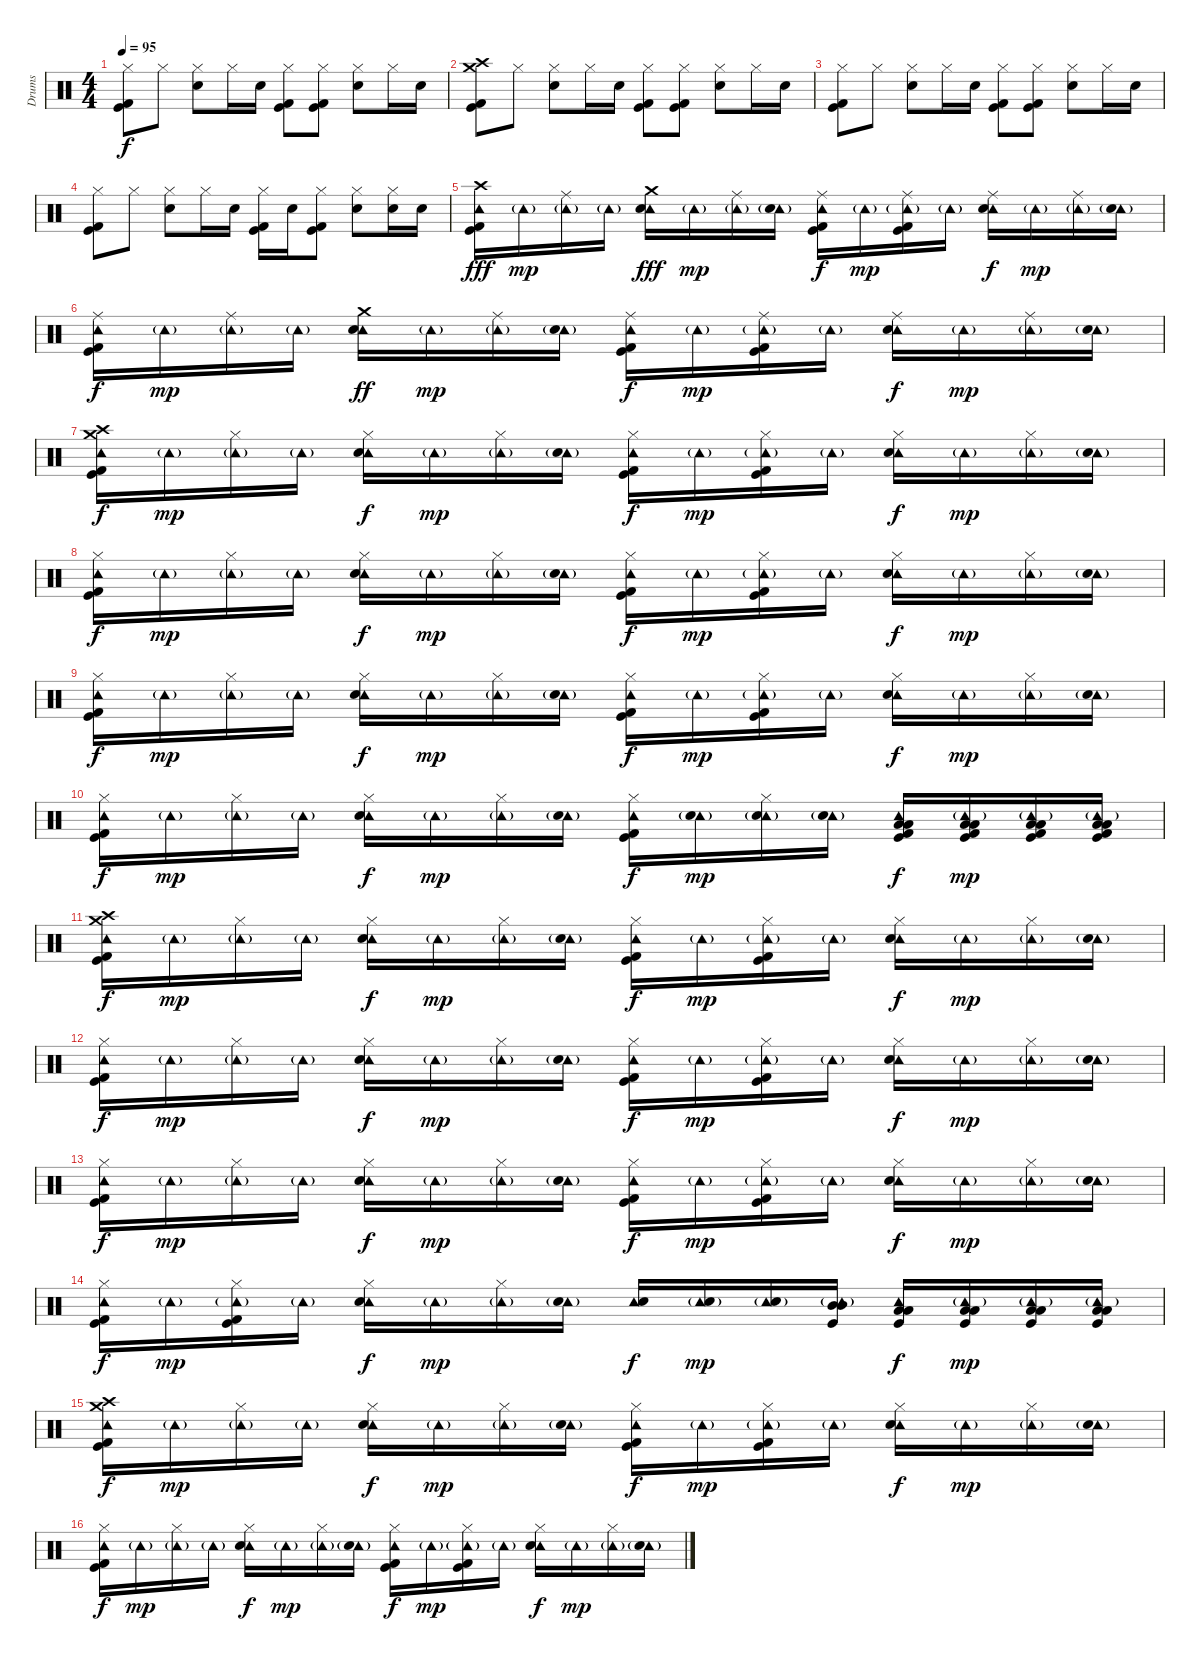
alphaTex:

\track ("Drums" "Drums") {instrument percussion}
\staff {score}
\articulation defaults
\ts (4 4)
\tempo 95
\clef neutral
\ks c
("Hi-Hat (closed)" "Kick (hit) 2" "Kick (hit)").8{dy f} "Hi-Hat (closed)".8 ("Hi-Hat (closed)" "Snare (hit) 2").8 "Hi-Hat (closed)".16 "Snare (hit) 2".16 ("Hi-Hat (closed)" "Kick (hit) 2" "Kick (hit)").8 ("Hi-Hat (closed)" "Kick (hit) 2" "Kick (hit)").8 ("Hi-Hat (closed)" "Snare (hit) 2").8 "Hi-Hat (closed)".16 "Snare (hit) 2".16 |
("Crash high (hit)" "Crash medium (hit)" "Kick (hit) 2" "Kick (hit)").8 "Hi-Hat (closed)".8 ("Hi-Hat (closed)" "Snare (hit) 2").8 "Hi-Hat (closed)".16 "Snare (hit) 2".16 ("Hi-Hat (closed)" "Kick (hit) 2" "Kick (hit)").8 ("Hi-Hat (closed)" "Kick (hit) 2" "Kick (hit)").8 ("Hi-Hat (closed)" "Snare (hit) 2").8 "Hi-Hat (closed)".16 "Snare (hit) 2".16 |
("Hi-Hat (closed)" "Kick (hit) 2" "Kick (hit)").8 "Hi-Hat (closed)".8 ("Hi-Hat (closed)" "Snare (hit) 2").8 "Hi-Hat (closed)".16 "Snare (hit) 2".16 ("Hi-Hat (closed)" "Kick (hit) 2" "Kick (hit)").8 ("Hi-Hat (closed)" "Kick (hit) 2" "Kick (hit)").8 ("Hi-Hat (closed)" "Snare (hit) 2").8 "Hi-Hat (closed)".16 "Snare (hit) 2".16 |
("Hi-Hat (closed)" "Kick (hit) 2" "Kick (hit)").8 "Hi-Hat (closed)".8 ("Hi-Hat (closed)" "Snare (hit) 2").8 "Hi-Hat (closed)".16 "Snare (hit) 2".16 ("Hi-Hat (closed)" "Kick (hit) 2" "Kick (hit)").16 "Snare (hit) 2".16 ("Hi-Hat (closed)" "Kick (hit) 2" "Kick (hit)").8 ("Hi-Hat (closed)" "Snare (hit) 2").8 ("Hi-Hat (closed)" "Snare (hit) 2").16 "Snare (hit) 2".16 |
("Crash high (hit)" "Tambourine (hit)" "Kick (hit) 2" "Kick (hit)").16{dy fff} "Tambourine (hit)"{g}.16{dy mp} ("Ride (middle)" "Tambourine (hit)"{g}).16 "Tambourine (hit)"{g}.16 ("Crash medium (hit)" "Tambourine (hit)" "Snare (hit) 2").16{dy fff} "Tambourine (hit)"{g}.16{dy mp} ("Ride (middle)" "Tambourine (hit)"{g}).16 ("Tambourine (hit)"{g} "Snare (hit) 2").16 ("Ride (middle)" "Tambourine (hit)" "Kick (hit) 2" "Kick (hit)").16{dy f} "Tambourine (hit)"{g}.16{dy mp} ("Ride (middle)" "Tambourine (hit)"{g} "Kick (hit) 2" "Kick (hit)").16 "Tambourine (hit)"{g}.16 ("Ride (middle)" "Tambourine (hit)" "Snare (hit) 2").16{dy f} "Tambourine (hit)"{g}.16{dy mp} ("Ride (middle)" "Tambourine (hit)"{g}).16 ("Tambourine (hit)"{g} "Snare (hit) 2").16 |
("Ride (middle)" "Tambourine (hit)" "Kick (hit) 2" "Kick (hit)").16{dy f} "Tambourine (hit)"{g}.16{dy mp} ("Ride (middle)" "Tambourine (hit)"{g}).16 "Tambourine (hit)"{g}.16 ("Crash medium (hit)" "Tambourine (hit)" "Snare (hit) 2").16{dy ff} "Tambourine (hit)"{g}.16{dy mp} ("Ride (middle)" "Tambourine (hit)"{g}).16 ("Tambourine (hit)"{g} "Snare (hit) 2").16 ("Ride (middle)" "Tambourine (hit)" "Kick (hit) 2" "Kick (hit)").16{dy f} "Tambourine (hit)"{g}.16{dy mp} ("Ride (middle)" "Tambourine (hit)"{g} "Kick (hit) 2" "Kick (hit)").16 "Tambourine (hit)"{g}.16 ("Ride (middle)" "Tambourine (hit)" "Snare (hit) 2").16{dy f} "Tambourine (hit)"{g}.16{dy mp} ("Ride (middle)" "Tambourine (hit)"{g}).16 ("Tambourine (hit)"{g} "Snare (hit) 2").16 |
("Crash high (hit)" "Tambourine (hit)" "Crash medium (hit)" "Kick (hit) 2" "Kick (hit)").16{dy f} "Tambourine (hit)"{g}.16{dy mp} ("Hi-Hat (closed)" "Tambourine (hit)"{g}).16 "Tambourine (hit)"{g}.16 ("Hi-Hat (closed)" "Tambourine (hit)" "Snare (hit) 2").16{dy f} "Tambourine (hit)"{g}.16{dy mp} ("Hi-Hat (closed)" "Tambourine (hit)"{g}).16 ("Tambourine (hit)"{g} "Snare (hit) 2").16 ("Hi-Hat (closed)" "Tambourine (hit)" "Kick (hit) 2" "Kick (hit)").16{dy f} "Tambourine (hit)"{g}.16{dy mp} ("Hi-Hat (closed)" "Tambourine (hit)"{g} "Kick (hit) 2" "Kick (hit)").16 "Tambourine (hit)"{g}.16 ("Hi-Hat (closed)" "Tambourine (hit)" "Snare (hit) 2").16{dy f} "Tambourine (hit)"{g}.16{dy mp} ("Hi-Hat (closed)" "Tambourine (hit)"{g}).16 ("Tambourine (hit)"{g} "Snare (hit) 2").16 |
("Hi-Hat (closed)" "Tambourine (hit)" "Kick (hit) 2" "Kick (hit)").16{dy f} "Tambourine (hit)"{g}.16{dy mp} ("Hi-Hat (closed)" "Tambourine (hit)"{g}).16 "Tambourine (hit)"{g}.16 ("Hi-Hat (closed)" "Tambourine (hit)" "Snare (hit) 2").16{dy f} "Tambourine (hit)"{g}.16{dy mp} ("Hi-Hat (closed)" "Tambourine (hit)"{g}).16 ("Tambourine (hit)"{g} "Snare (hit) 2").16 ("Hi-Hat (closed)" "Tambourine (hit)" "Kick (hit) 2" "Kick (hit)").16{dy f} "Tambourine (hit)"{g}.16{dy mp} ("Hi-Hat (closed)" "Tambourine (hit)"{g} "Kick (hit) 2" "Kick (hit)").16 "Tambourine (hit)"{g}.16 ("Hi-Hat (closed)" "Tambourine (hit)" "Snare (hit) 2").16{dy f} "Tambourine (hit)"{g}.16{dy mp} ("Hi-Hat (closed)" "Tambourine (hit)"{g}).16 ("Tambourine (hit)"{g} "Snare (hit) 2").16 |
("Hi-Hat (closed)" "Tambourine (hit)" "Kick (hit) 2" "Kick (hit)").16{dy f} "Tambourine (hit)"{g}.16{dy mp} ("Hi-Hat (closed)" "Tambourine (hit)"{g}).16 "Tambourine (hit)"{g}.16 ("Hi-Hat (closed)" "Tambourine (hit)" "Snare (hit) 2").16{dy f} "Tambourine (hit)"{g}.16{dy mp} ("Hi-Hat (closed)" "Tambourine (hit)"{g}).16 ("Tambourine (hit)"{g} "Snare (hit) 2").16 ("Hi-Hat (closed)" "Tambourine (hit)" "Kick (hit) 2" "Kick (hit)").16{dy f} "Tambourine (hit)"{g}.16{dy mp} ("Hi-Hat (closed)" "Tambourine (hit)"{g} "Kick (hit) 2" "Kick (hit)").16 "Tambourine (hit)"{g}.16 ("Hi-Hat (closed)" "Tambourine (hit)" "Snare (hit) 2").16{dy f} "Tambourine (hit)"{g}.16{dy mp} ("Hi-Hat (closed)" "Tambourine (hit)"{g}).16 ("Tambourine (hit)"{g} "Snare (hit) 2").16 |
("Hi-Hat (closed)" "Tambourine (hit)" "Kick (hit) 2" "Kick (hit)").16{dy f} "Tambourine (hit)"{g}.16{dy mp} ("Hi-Hat (closed)" "Tambourine (hit)"{g}).16 "Tambourine (hit)"{g}.16 ("Hi-Hat (closed)" "Tambourine (hit)" "Snare (hit) 2").16{dy f} "Tambourine (hit)"{g}.16{dy mp} ("Hi-Hat (closed)" "Tambourine (hit)"{g}).16 ("Tambourine (hit)"{g} "Snare (hit) 2").16 ("Hi-Hat (closed)" "Tambourine (hit)" "Kick (hit) 2" "Kick (hit)").16{dy f} ("Tambourine (hit)"{g} "Snare (hit) 2").16{dy mp} ("Hi-Hat (closed)" "Tambourine (hit)"{g} "Snare (hit) 2").16 ("Tambourine (hit)"{g} "Snare (hit) 2").16 ("Low Tom (hit)" "Tambourine (hit)" "Low Floor Tom (hit)" "Kick (hit) 2" "Kick (hit)").16{dy f} ("Low Tom (hit)" "Tambourine (hit)"{g} "Low Floor Tom (hit)" "Kick (hit) 2" "Kick (hit)").16{dy mp} ("Low Tom (hit)" "Tambourine (hit)"{g} "Low Floor Tom (hit)" "Kick (hit) 2" "Kick (hit)").16 ("Low Tom (hit)" "Tambourine (hit)"{g} "Low Floor Tom (hit)" "Kick (hit) 2" "Kick (hit)").16 |
("Crash high (hit)" "Tambourine (hit)" "Crash medium (hit)" "Kick (hit) 2" "Kick (hit)").16{dy f} "Tambourine (hit)"{g}.16{dy mp} ("Hi-Hat (closed)" "Tambourine (hit)"{g}).16 "Tambourine (hit)"{g}.16 ("Hi-Hat (closed)" "Tambourine (hit)" "Snare (hit) 2").16{dy f} "Tambourine (hit)"{g}.16{dy mp} ("Hi-Hat (closed)" "Tambourine (hit)"{g}).16 ("Tambourine (hit)"{g} "Snare (hit) 2").16 ("Hi-Hat (closed)" "Tambourine (hit)" "Kick (hit) 2" "Kick (hit)").16{dy f} "Tambourine (hit)"{g}.16{dy mp} ("Hi-Hat (closed)" "Tambourine (hit)"{g} "Kick (hit) 2" "Kick (hit)").16 "Tambourine (hit)"{g}.16 ("Hi-Hat (closed)" "Tambourine (hit)" "Snare (hit) 2").16{dy f} "Tambourine (hit)"{g}.16{dy mp} ("Hi-Hat (closed)" "Tambourine (hit)"{g}).16 ("Tambourine (hit)"{g} "Snare (hit) 2").16 |
("Hi-Hat (closed)" "Tambourine (hit)" "Kick (hit) 2" "Kick (hit)").16{dy f} "Tambourine (hit)"{g}.16{dy mp} ("Hi-Hat (closed)" "Tambourine (hit)"{g}).16 "Tambourine (hit)"{g}.16 ("Hi-Hat (closed)" "Tambourine (hit)" "Snare (hit) 2").16{dy f} "Tambourine (hit)"{g}.16{dy mp} ("Hi-Hat (closed)" "Tambourine (hit)"{g}).16 ("Tambourine (hit)"{g} "Snare (hit) 2").16 ("Hi-Hat (closed)" "Tambourine (hit)" "Kick (hit) 2" "Kick (hit)").16{dy f} "Tambourine (hit)"{g}.16{dy mp} ("Hi-Hat (closed)" "Tambourine (hit)"{g} "Kick (hit) 2" "Kick (hit)").16 "Tambourine (hit)"{g}.16 ("Hi-Hat (closed)" "Tambourine (hit)" "Snare (hit) 2").16{dy f} "Tambourine (hit)"{g}.16{dy mp} ("Hi-Hat (closed)" "Tambourine (hit)"{g}).16 ("Tambourine (hit)"{g} "Snare (hit) 2").16 |
("Hi-Hat (closed)" "Tambourine (hit)" "Kick (hit) 2" "Kick (hit)").16{dy f} "Tambourine (hit)"{g}.16{dy mp} ("Hi-Hat (closed)" "Tambourine (hit)"{g}).16 "Tambourine (hit)"{g}.16 ("Hi-Hat (closed)" "Tambourine (hit)" "Snare (hit) 2").16{dy f} "Tambourine (hit)"{g}.16{dy mp} ("Hi-Hat (closed)" "Tambourine (hit)"{g}).16 ("Tambourine (hit)"{g} "Snare (hit) 2").16 ("Hi-Hat (closed)" "Tambourine (hit)" "Kick (hit) 2" "Kick (hit)").16{dy f} "Tambourine (hit)"{g}.16{dy mp} ("Hi-Hat (closed)" "Tambourine (hit)"{g} "Kick (hit) 2" "Kick (hit)").16 "Tambourine (hit)"{g}.16 ("Hi-Hat (closed)" "Tambourine (hit)" "Snare (hit) 2").16{dy f} "Tambourine (hit)"{g}.16{dy mp} ("Hi-Hat (closed)" "Tambourine (hit)"{g}).16 ("Tambourine (hit)"{g} "Snare (hit) 2").16 |
("Hi-Hat (closed)" "Tambourine (hit)" "Kick (hit) 2" "Kick (hit)").16{dy f} "Tambourine (hit)"{g}.16{dy mp} ("Hi-Hat (closed)" "Tambourine (hit)"{g} "Kick (hit) 2" "Kick (hit)").16 "Tambourine (hit)"{g}.16 ("Hi-Hat (closed)" "Tambourine (hit)" "Snare (hit) 2").16{dy f} "Tambourine (hit)"{g}.16{dy mp} ("Hi-Hat (closed)" "Tambourine (hit)"{g}).16 ("Tambourine (hit)"{g} "Snare (hit) 2").16 ("Tambourine (hit)" "Snare (hit) 2").16{dy f} ("Tambourine (hit)"{g} "Snare (hit) 2").16{dy mp} ("Tambourine (hit)"{g} "Snare (hit) 2").16 ("Tambourine (hit)"{g} "Mid Tom (hit)" "Mid Tom (hit)" "Kick (hit)").16 ("Tambourine (hit)" "Low Tom (hit)" "Low Tom (hit)" "Kick (hit)").16{dy f} ("Tambourine (hit)"{g} "Low Tom (hit)" "Low Tom (hit)" "Kick (hit)").16{dy mp} ("Tambourine (hit)"{g} "Low Floor Tom (hit)" "Low Floor Tom (hit)" "Kick (hit)").16 ("Tambourine (hit)"{g} "Low Floor Tom (hit)" "Low Floor Tom (hit)" "Kick (hit)").16 |
("Crash high (hit)" "Tambourine (hit)" "Crash medium (hit)" "Kick (hit) 2" "Kick (hit)").16{dy f} "Tambourine (hit)"{g}.16{dy mp} ("Hi-Hat (closed)" "Tambourine (hit)"{g}).16 "Tambourine (hit)"{g}.16 ("Hi-Hat (closed)" "Tambourine (hit)" "Snare (hit) 2").16{dy f} "Tambourine (hit)"{g}.16{dy mp} ("Hi-Hat (closed)" "Tambourine (hit)"{g}).16 ("Tambourine (hit)"{g} "Snare (hit) 2").16 ("Hi-Hat (closed)" "Tambourine (hit)" "Kick (hit) 2" "Kick (hit)").16{dy f} "Tambourine (hit)"{g}.16{dy mp} ("Hi-Hat (closed)" "Tambourine (hit)"{g} "Kick (hit) 2" "Kick (hit)").16 "Tambourine (hit)"{g}.16 ("Hi-Hat (closed)" "Tambourine (hit)" "Snare (hit) 2").16{dy f} "Tambourine (hit)"{g}.16{dy mp} ("Hi-Hat (closed)" "Tambourine (hit)"{g}).16 ("Tambourine (hit)"{g} "Snare (hit) 2").16 |
("Hi-Hat (closed)" "Tambourine (hit)" "Kick (hit) 2" "Kick (hit)").16{dy f} "Tambourine (hit)"{g}.16{dy mp} ("Hi-Hat (closed)" "Tambourine (hit)"{g}).16 "Tambourine (hit)"{g}.16 ("Hi-Hat (closed)" "Tambourine (hit)" "Snare (hit) 2").16{dy f} "Tambourine (hit)"{g}.16{dy mp} ("Hi-Hat (closed)" "Tambourine (hit)"{g}).16 ("Tambourine (hit)"{g} "Snare (hit) 2").16 ("Hi-Hat (closed)" "Tambourine (hit)" "Kick (hit) 2" "Kick (hit)").16{dy f} "Tambourine (hit)"{g}.16{dy mp} ("Hi-Hat (closed)" "Tambourine (hit)"{g} "Kick (hit) 2" "Kick (hit)").16 "Tambourine (hit)"{g}.16 ("Hi-Hat (closed)" "Tambourine (hit)" "Snare (hit) 2").16{dy f} "Tambourine (hit)"{g}.16{dy mp} ("Hi-Hat (closed)" "Tambourine (hit)"{g}).16 ("Tambourine (hit)"{g} "Snare (hit) 2").16
